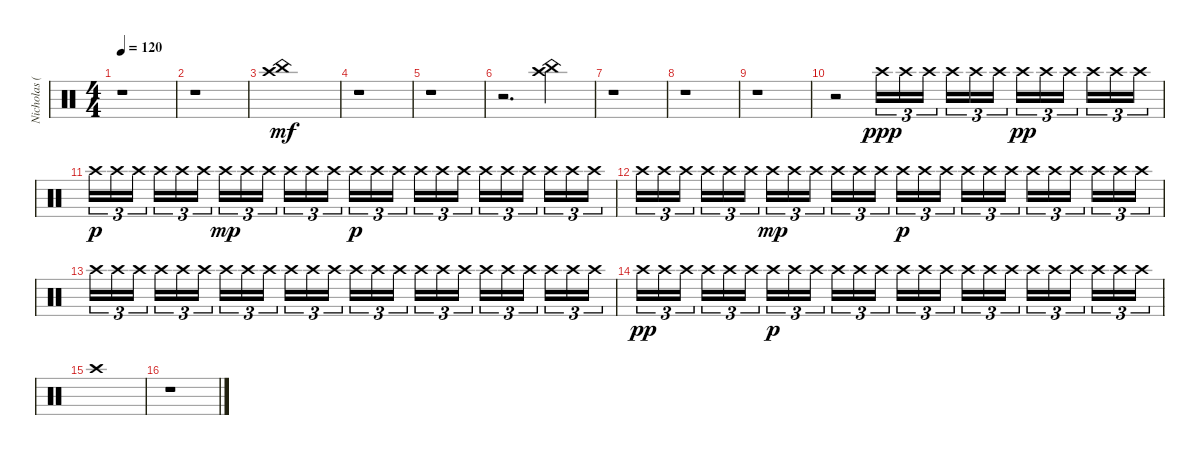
\track ("Nicholas (Drums)" "Nicholas (") {instrument percussion}
\staff {score}
\articulation defaults
\ts (4 4)
\tempo 120
\clef neutral
\ks c
r.1{dy mf} |
r.1 |
("Crash high (hit)" "China (hit)").1 |
r.1 |
r.1 |
r.2{d} ("Crash high (hit)" "China (hit)").4 |
r.1 |
r.1 |
r.1 |
r.2 "Crash high (hit)".16{tu (3 2) dy ppp} "Crash high (hit)".16{tu (3 2)} "Crash high (hit)".16{tu (3 2)} "Crash high (hit)".16{tu (3 2)} "Crash high (hit)".16{tu (3 2)} "Crash high (hit)".16{tu (3 2)} "Crash high (hit)".16{tu (3 2) dy pp} "Crash high (hit)".16{tu (3 2)} "Crash high (hit)".16{tu (3 2)} "Crash high (hit)".16{tu (3 2)} "Crash high (hit)".16{tu (3 2)} "Crash high (hit)".16{tu (3 2)} |
"Crash high (hit)".16{tu (3 2) dy p} "Crash high (hit)".16{tu (3 2)} "Crash high (hit)".16{tu (3 2)} "Crash high (hit)".16{tu (3 2)} "Crash high (hit)".16{tu (3 2)} "Crash high (hit)".16{tu (3 2)} "Crash high (hit)".16{tu (3 2) dy mp} "Crash high (hit)".16{tu (3 2)} "Crash high (hit)".16{tu (3 2)} "Crash high (hit)".16{tu (3 2)} "Crash high (hit)".16{tu (3 2)} "Crash high (hit)".16{tu (3 2)} "Crash high (hit)".16{tu (3 2) dy p} "Crash high (hit)".16{tu (3 2)} "Crash high (hit)".16{tu (3 2)} "Crash high (hit)".16{tu (3 2)} "Crash high (hit)".16{tu (3 2)} "Crash high (hit)".16{tu (3 2)} "Crash high (hit)".16{tu (3 2)} "Crash high (hit)".16{tu (3 2)} "Crash high (hit)".16{tu (3 2)} "Crash high (hit)".16{tu (3 2)} "Crash high (hit)".16{tu (3 2)} "Crash high (hit)".16{tu (3 2)} |
"Crash high (hit)".16{tu (3 2)} "Crash high (hit)".16{tu (3 2)} "Crash high (hit)".16{tu (3 2)} "Crash high (hit)".16{tu (3 2)} "Crash high (hit)".16{tu (3 2)} "Crash high (hit)".16{tu (3 2)} "Crash high (hit)".16{tu (3 2) dy mp} "Crash high (hit)".16{tu (3 2)} "Crash high (hit)".16{tu (3 2)} "Crash high (hit)".16{tu (3 2)} "Crash high (hit)".16{tu (3 2)} "Crash high (hit)".16{tu (3 2)} "Crash high (hit)".16{tu (3 2) dy p} "Crash high (hit)".16{tu (3 2)} "Crash high (hit)".16{tu (3 2)} "Crash high (hit)".16{tu (3 2)} "Crash high (hit)".16{tu (3 2)} "Crash high (hit)".16{tu (3 2)} "Crash high (hit)".16{tu (3 2)} "Crash high (hit)".16{tu (3 2)} "Crash high (hit)".16{tu (3 2)} "Crash high (hit)".16{tu (3 2)} "Crash high (hit)".16{tu (3 2)} "Crash high (hit)".16{tu (3 2)} |
"Crash high (hit)".16{tu (3 2)} "Crash high (hit)".16{tu (3 2)} "Crash high (hit)".16{tu (3 2)} "Crash high (hit)".16{tu (3 2)} "Crash high (hit)".16{tu (3 2)} "Crash high (hit)".16{tu (3 2)} "Crash high (hit)".16{tu (3 2)} "Crash high (hit)".16{tu (3 2)} "Crash high (hit)".16{tu (3 2)} "Crash high (hit)".16{tu (3 2)} "Crash high (hit)".16{tu (3 2)} "Crash high (hit)".16{tu (3 2)} "Crash high (hit)".16{tu (3 2)} "Crash high (hit)".16{tu (3 2)} "Crash high (hit)".16{tu (3 2)} "Crash high (hit)".16{tu (3 2)} "Crash high (hit)".16{tu (3 2)} "Crash high (hit)".16{tu (3 2)} "Crash high (hit)".16{tu (3 2)} "Crash high (hit)".16{tu (3 2)} "Crash high (hit)".16{tu (3 2)} "Crash high (hit)".16{tu (3 2)} "Crash high (hit)".16{tu (3 2)} "Crash high (hit)".16{tu (3 2)} |
"Crash high (hit)".16{tu (3 2) dy pp} "Crash high (hit)".16{tu (3 2)} "Crash high (hit)".16{tu (3 2)} "Crash high (hit)".16{tu (3 2)} "Crash high (hit)".16{tu (3 2)} "Crash high (hit)".16{tu (3 2)} "Crash high (hit)".16{tu (3 2) dy p} "Crash high (hit)".16{tu (3 2)} "Crash high (hit)".16{tu (3 2)} "Crash high (hit)".16{tu (3 2)} "Crash high (hit)".16{tu (3 2)} "Crash high (hit)".16{tu (3 2)} "Crash high (hit)".16{tu (3 2)} "Crash high (hit)".16{tu (3 2)} "Crash high (hit)".16{tu (3 2)} "Crash high (hit)".16{tu (3 2)} "Crash high (hit)".16{tu (3 2)} "Crash high (hit)".16{tu (3 2)} "Crash high (hit)".16{tu (3 2)} "Crash high (hit)".16{tu (3 2)} "Crash high (hit)".16{tu (3 2)} "Crash high (hit)".16{tu (3 2)} "Crash high (hit)".16{tu (3 2)} "Crash high (hit)".16{tu (3 2)} |
"Crash high (hit)".1 |
r.1
